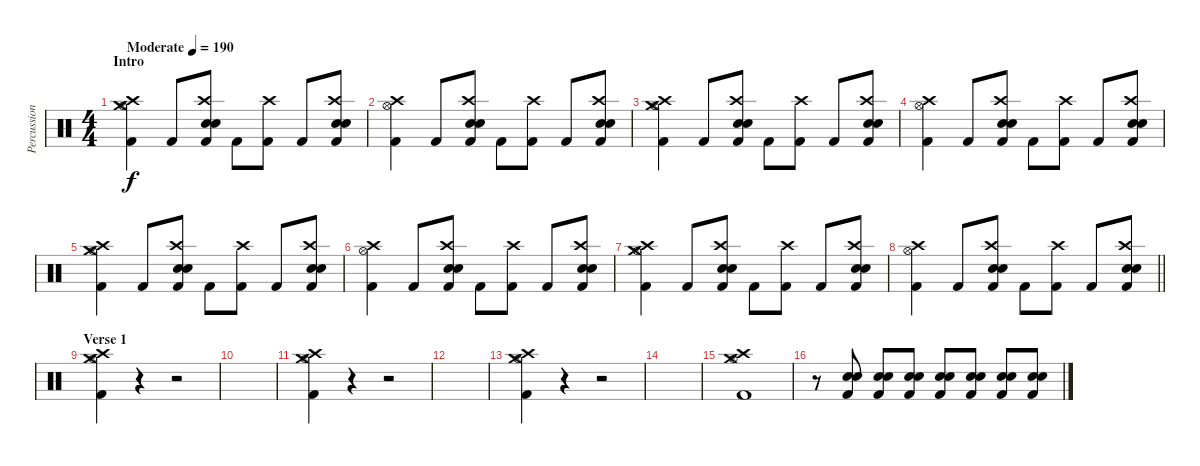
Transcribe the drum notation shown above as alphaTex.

\track ("Percussion" "Percussion") {instrument percussion}
\staff {score}
\articulation defaults
\ts (4 4)
\section ("" "Intro")
\tempo (190 "Moderate")
\clef neutral
\ks c
("Hi-Hat (open)" "Kick (hit) 2" "Crash medium (hit)" "Crash high (hit)").4{dy f} "Kick (hit) 2".8 ("Electric Snare (hit)" "Snare (hit) 2" "Kick (hit) 2" "Crash high (hit)").8 "Kick (hit) 2".8 ("Kick (hit) 2" "Crash high (hit)").8 "Kick (hit) 2".8 ("Electric Snare (hit)" "Snare (hit) 2" "Kick (hit) 2" "Crash high (hit)").8 |
("Hi-Hat (open)" "Kick (hit) 2" "Crash high (hit)").4 "Kick (hit) 2".8 ("Electric Snare (hit)" "Snare (hit) 2" "Kick (hit) 2" "Crash high (hit)").8 "Kick (hit) 2".8 ("Kick (hit) 2" "Crash high (hit)").8 "Kick (hit) 2".8 ("Electric Snare (hit)" "Snare (hit) 2" "Kick (hit) 2" "Crash high (hit)").8 |
("Hi-Hat (open)" "Kick (hit) 2" "Crash medium (hit)" "Crash high (hit)").4 "Kick (hit) 2".8 ("Electric Snare (hit)" "Snare (hit) 2" "Kick (hit) 2" "Crash high (hit)").8 "Kick (hit) 2".8 ("Kick (hit) 2" "Crash high (hit)").8 "Kick (hit) 2".8 ("Electric Snare (hit)" "Snare (hit) 2" "Kick (hit) 2" "Crash high (hit)").8 |
("Hi-Hat (open)" "Kick (hit) 2" "Crash high (hit)").4 "Kick (hit) 2".8 ("Electric Snare (hit)" "Snare (hit) 2" "Kick (hit) 2" "Crash high (hit)").8 "Kick (hit) 2".8 ("Kick (hit) 2" "Crash high (hit)").8 "Kick (hit) 2".8 ("Electric Snare (hit)" "Snare (hit) 2" "Kick (hit) 2" "Crash high (hit)").8 |
("Hi-Hat (open)" "Kick (hit) 2" "Crash medium (hit)" "Crash high (hit)").4 "Kick (hit) 2".8 ("Electric Snare (hit)" "Snare (hit) 2" "Kick (hit) 2" "Crash high (hit)").8 "Kick (hit) 2".8 ("Kick (hit) 2" "Crash high (hit)").8 "Kick (hit) 2".8 ("Electric Snare (hit)" "Snare (hit) 2" "Kick (hit) 2" "Crash high (hit)").8 |
("Hi-Hat (open)" "Kick (hit) 2" "Crash high (hit)").4 "Kick (hit) 2".8 ("Electric Snare (hit)" "Snare (hit) 2" "Kick (hit) 2" "Crash high (hit)").8 "Kick (hit) 2".8 ("Kick (hit) 2" "Crash high (hit)").8 "Kick (hit) 2".8 ("Electric Snare (hit)" "Snare (hit) 2" "Kick (hit) 2" "Crash high (hit)").8 |
("Hi-Hat (open)" "Kick (hit) 2" "Crash medium (hit)" "Crash high (hit)").4 "Kick (hit) 2".8 ("Electric Snare (hit)" "Snare (hit) 2" "Kick (hit) 2" "Crash high (hit)").8 "Kick (hit) 2".8 ("Kick (hit) 2" "Crash high (hit)").8 "Kick (hit) 2".8 ("Electric Snare (hit)" "Snare (hit) 2" "Kick (hit) 2" "Crash high (hit)").8 |
\barLineRight lightlight
("Hi-Hat (open)" "Kick (hit) 2" "Crash high (hit)").4 "Kick (hit) 2".8 ("Electric Snare (hit)" "Snare (hit) 2" "Kick (hit) 2" "Crash high (hit)").8 "Kick (hit) 2".8 ("Kick (hit) 2" "Crash high (hit)").8 "Kick (hit) 2".8 ("Electric Snare (hit)" "Snare (hit) 2" "Kick (hit) 2" "Crash high (hit)").8 |
\section ("" "Verse 1")
("Hi-Hat (open)" "Kick (hit) 2" "Crash medium (hit)" "Crash high (hit)").4 r.4 r.2 |
|
("Hi-Hat (open)" "Kick (hit) 2" "Crash medium (hit)" "Crash high (hit)").4 r.4 r.2 |
|
("Hi-Hat (open)" "Kick (hit) 2" "Crash medium (hit)" "Crash high (hit)").4 r.4 r.2 |
|
("Hi-Hat (open)" "Kick (hit) 2" "Crash medium (hit)" "Crash high (hit)").1 |
r.8 ("Electric Snare (hit)" "Snare (hit) 2" "Kick (hit) 2").8 ("Electric Snare (hit)" "Snare (hit) 2" "Kick (hit) 2").8 ("Electric Snare (hit)" "Snare (hit) 2" "Kick (hit) 2").8 ("Electric Snare (hit)" "Snare (hit) 2" "Kick (hit) 2").8 ("Electric Snare (hit)" "Snare (hit) 2" "Kick (hit) 2").8 ("Electric Snare (hit)" "Snare (hit) 2" "Kick (hit) 2").8 ("Electric Snare (hit)" "Snare (hit) 2" "Kick (hit) 2").8
